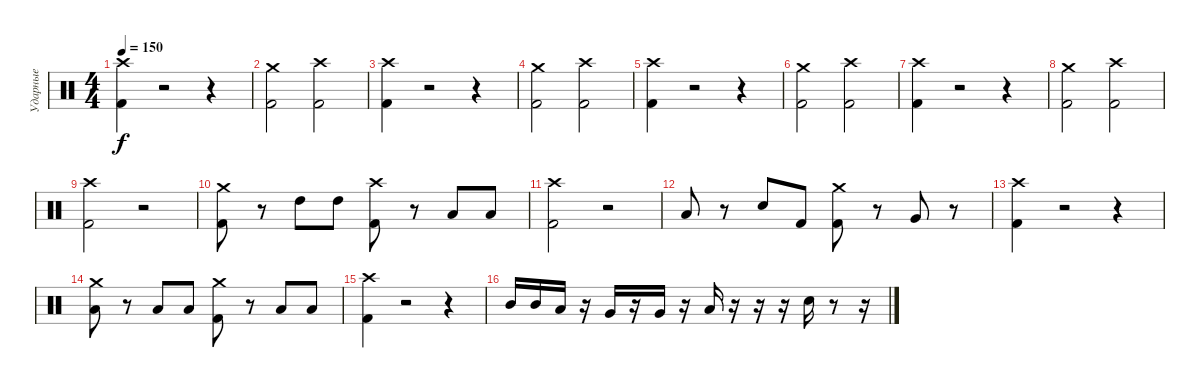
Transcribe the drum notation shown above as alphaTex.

\track ("Ударные" "Ударные") {instrument percussion}
\staff {score}
\articulation defaults
\ts (4 4)
\tempo 150
\clef neutral
\ks c
("Kick (hit) 2" "Crash high (hit)").4{dy f} r.2 r.4 |
("Kick (hit) 2" "Crash medium (hit)").2 ("Kick (hit) 2" "Crash high (hit)").2 |
("Kick (hit) 2" "Crash high (hit)").4 r.2 r.4 |
("Kick (hit) 2" "Crash medium (hit)").2 ("Kick (hit) 2" "Crash high (hit)").2 |
("Kick (hit) 2" "Crash high (hit)").4 r.2 r.4 |
("Kick (hit) 2" "Crash medium (hit)").2 ("Kick (hit) 2" "Crash high (hit)").2 |
("Kick (hit) 2" "Crash high (hit)").4 r.2 r.4 |
("Kick (hit) 2" "Crash medium (hit)").2 ("Kick (hit) 2" "Crash high (hit)").2 |
("Kick (hit) 2" "Crash high (hit)").2 r.2 |
("Kick (hit) 2" "Crash medium (hit)").8 r.8 "High Tom (hit)".8 "High Tom (hit)".8 ("Kick (hit) 2" "Crash high (hit)").8 r.8 "Low Tom (hit)".8 "Low Tom (hit)".8 |
("Kick (hit) 2" "Crash high (hit)").2 r.2 |
"Low Tom (hit)".8 r.8 "Electric Snare (hit)".8 "Kick (hit) 2".8 ("Kick (hit) 2" "Crash medium (hit)").8 r.8 "Very Low Tom (hit)".8 r.8 |
("Kick (hit) 2" "Crash high (hit)").4 r.2 r.4 |
("Low Tom (hit)" "Crash medium (hit)").8 r.8 "Low Floor Tom (hit)".8 "Low Floor Tom (hit)".8 ("Kick (hit) 2" "Crash medium (hit)").8 r.8 "Low Tom (hit)".8 "Low Tom (hit)".8 |
("Kick (hit) 2" "Crash high (hit)").4 r.2 r.4 |
"Mid Tom (hit)".16 "Mid Tom (hit)".16 "Low Tom (hit)".16 r.16 "Very Low Tom (hit)".16 r.16 "Very Low Tom (hit)".16 r.16 "Low Floor Tom (hit)".16 r.16 r.16 r.16 "Electric Snare (hit)".16 r.8 r.16
